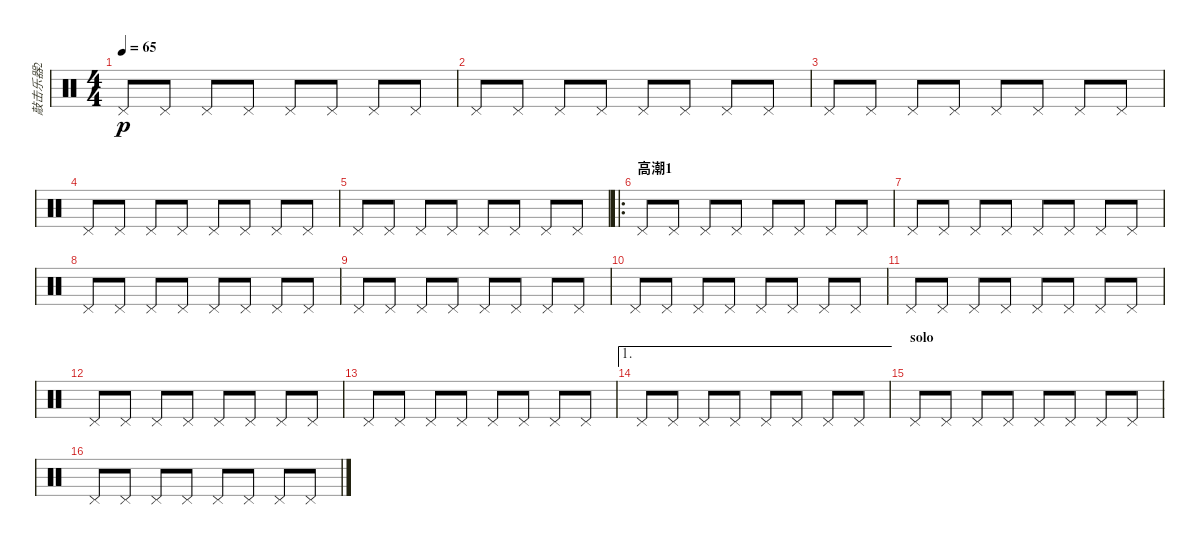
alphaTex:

\track ("敲击乐器2" "敲击乐器2") {instrument percussion}
\staff {score}
\articulation defaults
\ts (4 4)
\tempo 65
\clef neutral
\ks c "Pedal Hi-Hat (hit)".8{dy p} "Pedal Hi-Hat (hit)".8 "Pedal Hi-Hat (hit)".8 "Pedal Hi-Hat (hit)".8 "Pedal Hi-Hat (hit)".8 "Pedal Hi-Hat (hit)".8 "Pedal Hi-Hat (hit)".8 "Pedal Hi-Hat (hit)".8
|
"Pedal Hi-Hat (hit)".8 "Pedal Hi-Hat (hit)".8 "Pedal Hi-Hat (hit)".8 "Pedal Hi-Hat (hit)".8 "Pedal Hi-Hat (hit)".8 "Pedal Hi-Hat (hit)".8 "Pedal Hi-Hat (hit)".8 "Pedal Hi-Hat (hit)".8 |
"Pedal Hi-Hat (hit)".8 "Pedal Hi-Hat (hit)".8 "Pedal Hi-Hat (hit)".8 "Pedal Hi-Hat (hit)".8 "Pedal Hi-Hat (hit)".8 "Pedal Hi-Hat (hit)".8 "Pedal Hi-Hat (hit)".8 "Pedal Hi-Hat (hit)".8 |
"Pedal Hi-Hat (hit)".8 "Pedal Hi-Hat (hit)".8 "Pedal Hi-Hat (hit)".8 "Pedal Hi-Hat (hit)".8 "Pedal Hi-Hat (hit)".8 "Pedal Hi-Hat (hit)".8 "Pedal Hi-Hat (hit)".8 "Pedal Hi-Hat (hit)".8 |
"Pedal Hi-Hat (hit)".8 "Pedal Hi-Hat (hit)".8 "Pedal Hi-Hat (hit)".8 "Pedal Hi-Hat (hit)".8 "Pedal Hi-Hat (hit)".8 "Pedal Hi-Hat (hit)".8 "Pedal Hi-Hat (hit)".8 "Pedal Hi-Hat (hit)".8 |
\ro
\section ("" "高潮1")
"Pedal Hi-Hat (hit)".8 "Pedal Hi-Hat (hit)".8 "Pedal Hi-Hat (hit)".8 "Pedal Hi-Hat (hit)".8 "Pedal Hi-Hat (hit)".8 "Pedal Hi-Hat (hit)".8 "Pedal Hi-Hat (hit)".8 "Pedal Hi-Hat (hit)".8 |
"Pedal Hi-Hat (hit)".8 "Pedal Hi-Hat (hit)".8 "Pedal Hi-Hat (hit)".8 "Pedal Hi-Hat (hit)".8 "Pedal Hi-Hat (hit)".8 "Pedal Hi-Hat (hit)".8 "Pedal Hi-Hat (hit)".8 "Pedal Hi-Hat (hit)".8 |
"Pedal Hi-Hat (hit)".8 "Pedal Hi-Hat (hit)".8 "Pedal Hi-Hat (hit)".8 "Pedal Hi-Hat (hit)".8 "Pedal Hi-Hat (hit)".8 "Pedal Hi-Hat (hit)".8 "Pedal Hi-Hat (hit)".8 "Pedal Hi-Hat (hit)".8 |
"Pedal Hi-Hat (hit)".8 "Pedal Hi-Hat (hit)".8 "Pedal Hi-Hat (hit)".8 "Pedal Hi-Hat (hit)".8 "Pedal Hi-Hat (hit)".8 "Pedal Hi-Hat (hit)".8 "Pedal Hi-Hat (hit)".8 "Pedal Hi-Hat (hit)".8 |
"Pedal Hi-Hat (hit)".8 "Pedal Hi-Hat (hit)".8 "Pedal Hi-Hat (hit)".8 "Pedal Hi-Hat (hit)".8 "Pedal Hi-Hat (hit)".8 "Pedal Hi-Hat (hit)".8 "Pedal Hi-Hat (hit)".8 "Pedal Hi-Hat (hit)".8 |
"Pedal Hi-Hat (hit)".8 "Pedal Hi-Hat (hit)".8 "Pedal Hi-Hat (hit)".8 "Pedal Hi-Hat (hit)".8 "Pedal Hi-Hat (hit)".8 "Pedal Hi-Hat (hit)".8 "Pedal Hi-Hat (hit)".8 "Pedal Hi-Hat (hit)".8 |
"Pedal Hi-Hat (hit)".8 "Pedal Hi-Hat (hit)".8 "Pedal Hi-Hat (hit)".8 "Pedal Hi-Hat (hit)".8 "Pedal Hi-Hat (hit)".8 "Pedal Hi-Hat (hit)".8 "Pedal Hi-Hat (hit)".8 "Pedal Hi-Hat (hit)".8 |
"Pedal Hi-Hat (hit)".8 "Pedal Hi-Hat (hit)".8 "Pedal Hi-Hat (hit)".8 "Pedal Hi-Hat (hit)".8 "Pedal Hi-Hat (hit)".8 "Pedal Hi-Hat (hit)".8 "Pedal Hi-Hat (hit)".8 "Pedal Hi-Hat (hit)".8 |
\ae 1 "Pedal Hi-Hat (hit)".8 "Pedal Hi-Hat (hit)".8 "Pedal Hi-Hat (hit)".8 "Pedal Hi-Hat (hit)".8 "Pedal Hi-Hat (hit)".8 "Pedal Hi-Hat (hit)".8 "Pedal Hi-Hat (hit)".8 "Pedal Hi-Hat (hit)".8
|
\section ("" "solo")
"Pedal Hi-Hat (hit)".8 "Pedal Hi-Hat (hit)".8 "Pedal Hi-Hat (hit)".8 "Pedal Hi-Hat (hit)".8 "Pedal Hi-Hat (hit)".8 "Pedal Hi-Hat (hit)".8 "Pedal Hi-Hat (hit)".8 "Pedal Hi-Hat (hit)".8 |
"Pedal Hi-Hat (hit)".8 "Pedal Hi-Hat (hit)".8 "Pedal Hi-Hat (hit)".8 "Pedal Hi-Hat (hit)".8 "Pedal Hi-Hat (hit)".8 "Pedal Hi-Hat (hit)".8 "Pedal Hi-Hat (hit)".8 "Pedal Hi-Hat (hit)".8
